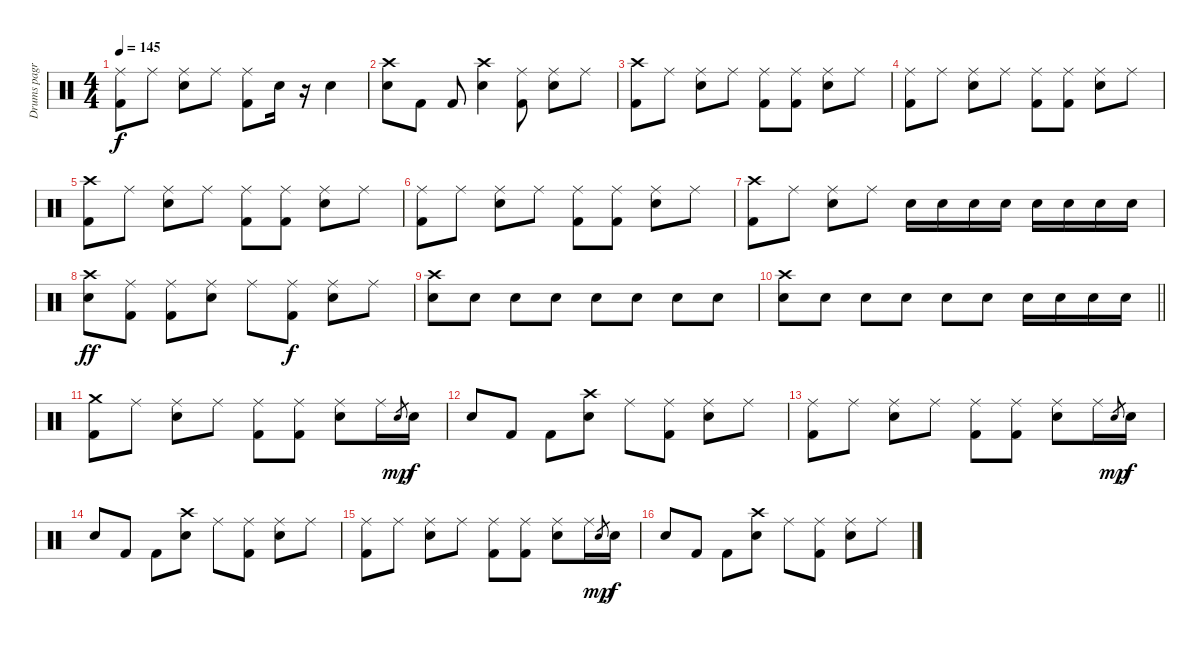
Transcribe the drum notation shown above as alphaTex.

\track ("Drums pagr" "Drums pagr") {instrument percussion}
\staff {score}
\articulation defaults
\ts (4 4)
\tempo 145
\clef neutral
\ks c
("Ride (middle)" "Kick (hit) 2").8{dy f} "Ride (middle)".8 ("Ride (middle)" "Snare (hit) 2").8 "Ride (middle)".8 ("Ride (middle)" "Kick (hit) 2").8 "Snare (hit) 2".16 r.16 "Snare (hit) 2".4 |
("Crash high (hit)" "Snare (hit) 2").8 "Kick (hit) 2".8 "Kick (hit) 2".8 ("Crash high (hit)" "Snare (hit) 2").4 ("Ride (middle)" "Kick (hit) 2").8 ("Ride (middle)" "Snare (hit) 2").8 "Ride (middle)".8 |
("Crash high (hit)" "Kick (hit) 2").8 "Ride (middle)".8 ("Ride (middle)" "Snare (hit) 2").8 "Ride (middle)".8 ("Ride (middle)" "Kick (hit) 2").8 ("Ride (middle)" "Kick (hit) 2").8 ("Ride (middle)" "Snare (hit) 2").8 "Ride (middle)".8 |
("Ride (middle)" "Kick (hit) 2").8 "Ride (middle)".8 ("Ride (middle)" "Snare (hit) 2").8 "Ride (middle)".8 ("Ride (middle)" "Kick (hit) 2").8 ("Ride (middle)" "Kick (hit) 2").8 ("Ride (middle)" "Snare (hit) 2").8 "Ride (middle)".8 |
("Crash high (hit)" "Kick (hit) 2").8 "Ride (middle)".8 ("Ride (middle)" "Snare (hit) 2").8 "Ride (middle)".8 ("Ride (middle)" "Kick (hit) 2").8 ("Ride (middle)" "Kick (hit) 2").8 ("Ride (middle)" "Snare (hit) 2").8 "Ride (middle)".8 |
("Ride (middle)" "Kick (hit) 2").8 "Ride (middle)".8 ("Ride (middle)" "Snare (hit) 2").8 "Ride (middle)".8 ("Ride (middle)" "Kick (hit) 2").8 ("Ride (middle)" "Kick (hit) 2").8 ("Ride (middle)" "Snare (hit) 2").8 "Ride (middle)".8 |
("Crash high (hit)" "Kick (hit) 2").8 "Ride (middle)".8 ("Ride (middle)" "Snare (hit) 2").8 "Ride (middle)".8 "Snare (hit) 2".16 "Snare (hit) 2".16 "Snare (hit) 2".16 "Snare (hit) 2".16 "Snare (hit) 2".16 "Snare (hit) 2".16 "Snare (hit) 2".16 "Snare (hit) 2".16 |
("Crash high (hit)" "Snare (hit) 2").8{dy ff} ("Ride (middle)" "Kick (hit) 2").8 ("Ride (middle)" "Kick (hit) 2").8 ("Ride (middle)" "Snare (hit) 2").8 "Ride (middle)".8 ("Ride (middle)" "Kick (hit) 2").8{dy f} ("Ride (middle)" "Snare (hit) 2").8 "Ride (middle)".8 |
("Crash high (hit)" "Snare (hit) 2").8 "Snare (hit) 2".8 "Snare (hit) 2".8 "Snare (hit) 2".8 "Snare (hit) 2".8 "Snare (hit) 2".8 "Snare (hit) 2".8 "Snare (hit) 2".8 |
\barLineRight lightlight
("Crash high (hit)" "Snare (hit) 2").8 "Snare (hit) 2".8 "Snare (hit) 2".8 "Snare (hit) 2".8 "Snare (hit) 2".8 "Snare (hit) 2".8 "Snare (hit) 2".16 "Snare (hit) 2".16 "Snare (hit) 2".16 "Snare (hit) 2".16 |
("Crash medium (hit)" "Kick (hit) 2").8 "Ride (middle)".8 ("Ride (middle)" "Snare (hit) 2").8 "Ride (middle)".8 ("Ride (middle)" "Kick (hit) 2").8 ("Ride (middle)" "Kick (hit) 2").8 ("Ride (middle)" "Snare (hit) 2").8 "Ride (middle)".16 "Snare (hit) 2".8{gr dy mp} "Snare (hit) 2".16{dy f} |
"Snare (hit) 2".8 "Kick (hit) 2".8 "Kick (hit) 2".8 ("Crash high (hit)" "Snare (hit) 2").8 "Ride (middle)".8 ("Ride (middle)" "Kick (hit) 2").8 ("Ride (middle)" "Snare (hit) 2").8 "Ride (middle)".8 |
("Ride (middle)" "Kick (hit) 2").8 "Ride (middle)".8 ("Ride (middle)" "Snare (hit) 2").8 "Ride (middle)".8 ("Ride (middle)" "Kick (hit) 2").8 ("Ride (middle)" "Kick (hit) 2").8 ("Ride (middle)" "Snare (hit) 2").8 "Ride (middle)".16 "Snare (hit) 2".8{gr dy mp} "Snare (hit) 2".16{dy f} |
"Snare (hit) 2".8 "Kick (hit) 2".8 "Kick (hit) 2".8 ("Crash high (hit)" "Snare (hit) 2").8 "Ride (middle)".8 ("Ride (middle)" "Kick (hit) 2").8 ("Ride (middle)" "Snare (hit) 2").8 "Ride (middle)".8 |
("Ride (middle)" "Kick (hit) 2").8 "Ride (middle)".8 ("Ride (middle)" "Snare (hit) 2").8 "Ride (middle)".8 ("Ride (middle)" "Kick (hit) 2").8 ("Ride (middle)" "Kick (hit) 2").8 ("Ride (middle)" "Snare (hit) 2").8 "Ride (middle)".16 "Snare (hit) 2".8{gr dy mp} "Snare (hit) 2".16{dy f} |
"Snare (hit) 2".8 "Kick (hit) 2".8 "Kick (hit) 2".8 ("Crash high (hit)" "Snare (hit) 2").8 "Ride (middle)".8 ("Ride (middle)" "Kick (hit) 2").8 ("Ride (middle)" "Snare (hit) 2").8 "Ride (middle)".8
